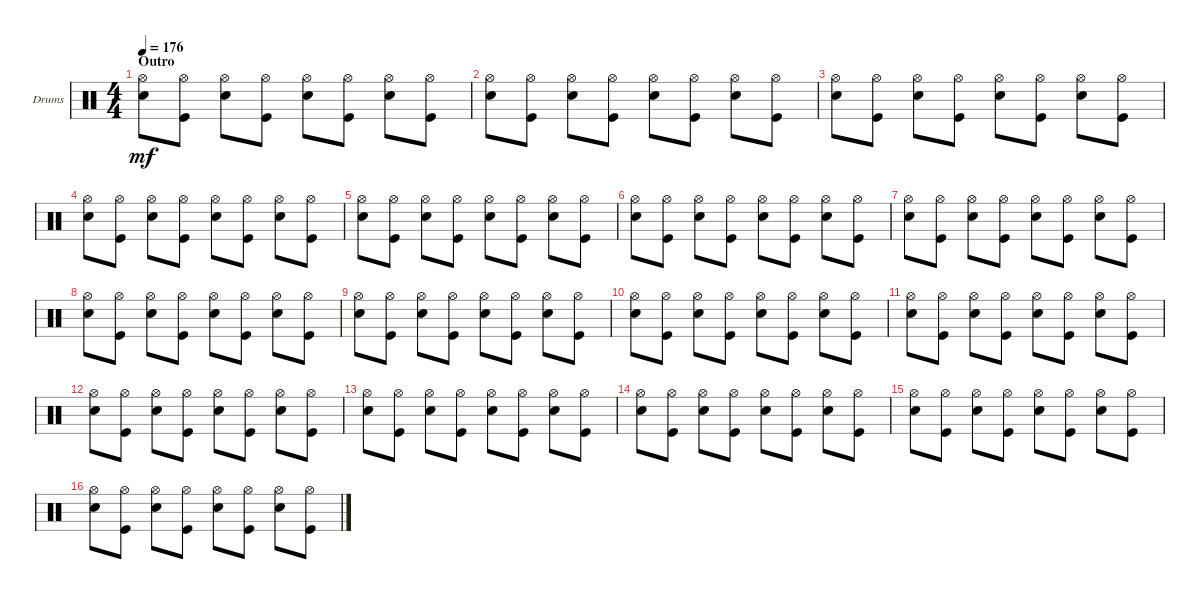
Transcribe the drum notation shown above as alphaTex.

\bracketExtendMode groupsimilarinstruments
\firstSystemTrackNameOrientation horizontal
\otherSystemsTrackNameOrientation horizontal
\track ("Drums" "Drums") {instrument percussion}
\staff {score}
\articulation defaults
\ts (4 4)
\section ("" "Outro")
\tempo 176
\clef neutral
\ks c
("Snare (hit) 2" "Hi-Hat (open)").8{dy mf} ("Kick (hit)" "Hi-Hat (open)").8 ("Snare (hit) 2" "Hi-Hat (open)").8 ("Kick (hit)" "Hi-Hat (open)").8 ("Snare (hit) 2" "Hi-Hat (open)").8 ("Kick (hit)" "Hi-Hat (open)").8 ("Snare (hit) 2" "Hi-Hat (open)").8 ("Kick (hit)" "Hi-Hat (open)").8 |
("Snare (hit) 2" "Hi-Hat (open)").8 ("Kick (hit)" "Hi-Hat (open)").8 ("Snare (hit) 2" "Hi-Hat (open)").8 ("Kick (hit)" "Hi-Hat (open)").8 ("Snare (hit) 2" "Hi-Hat (open)").8 ("Kick (hit)" "Hi-Hat (open)").8 ("Snare (hit) 2" "Hi-Hat (open)").8 ("Kick (hit)" "Hi-Hat (open)").8 |
("Snare (hit) 2" "Hi-Hat (open)").8 ("Kick (hit)" "Hi-Hat (open)").8 ("Snare (hit) 2" "Hi-Hat (open)").8 ("Kick (hit)" "Hi-Hat (open)").8 ("Snare (hit) 2" "Hi-Hat (open)").8 ("Kick (hit)" "Hi-Hat (open)").8 ("Snare (hit) 2" "Hi-Hat (open)").8 ("Kick (hit)" "Hi-Hat (open)").8 |
("Snare (hit) 2" "Hi-Hat (open)").8 ("Kick (hit)" "Hi-Hat (open)").8 ("Snare (hit) 2" "Hi-Hat (open)").8 ("Kick (hit)" "Hi-Hat (open)").8 ("Snare (hit) 2" "Hi-Hat (open)").8 ("Kick (hit)" "Hi-Hat (open)").8 ("Snare (hit) 2" "Hi-Hat (open)").8 ("Kick (hit)" "Hi-Hat (open)").8 |
("Snare (hit) 2" "Hi-Hat (open)").8 ("Kick (hit)" "Hi-Hat (open)").8 ("Snare (hit) 2" "Hi-Hat (open)").8 ("Kick (hit)" "Hi-Hat (open)").8 ("Snare (hit) 2" "Hi-Hat (open)").8 ("Kick (hit)" "Hi-Hat (open)").8 ("Snare (hit) 2" "Hi-Hat (open)").8 ("Kick (hit)" "Hi-Hat (open)").8 |
("Snare (hit) 2" "Hi-Hat (open)").8 ("Kick (hit)" "Hi-Hat (open)").8 ("Snare (hit) 2" "Hi-Hat (open)").8 ("Kick (hit)" "Hi-Hat (open)").8 ("Snare (hit) 2" "Hi-Hat (open)").8 ("Kick (hit)" "Hi-Hat (open)").8 ("Snare (hit) 2" "Hi-Hat (open)").8 ("Kick (hit)" "Hi-Hat (open)").8 |
("Snare (hit) 2" "Hi-Hat (open)").8 ("Kick (hit)" "Hi-Hat (open)").8 ("Snare (hit) 2" "Hi-Hat (open)").8 ("Kick (hit)" "Hi-Hat (open)").8 ("Snare (hit) 2" "Hi-Hat (open)").8 ("Kick (hit)" "Hi-Hat (open)").8 ("Snare (hit) 2" "Hi-Hat (open)").8 ("Kick (hit)" "Hi-Hat (open)").8 |
("Snare (hit) 2" "Hi-Hat (open)").8 ("Kick (hit)" "Hi-Hat (open)").8 ("Snare (hit) 2" "Hi-Hat (open)").8 ("Kick (hit)" "Hi-Hat (open)").8 ("Snare (hit) 2" "Hi-Hat (open)").8 ("Kick (hit)" "Hi-Hat (open)").8 ("Snare (hit) 2" "Hi-Hat (open)").8 ("Kick (hit)" "Hi-Hat (open)").8 |
("Snare (hit) 2" "Hi-Hat (open)").8 ("Kick (hit)" "Hi-Hat (open)").8 ("Snare (hit) 2" "Hi-Hat (open)").8 ("Kick (hit)" "Hi-Hat (open)").8 ("Snare (hit) 2" "Hi-Hat (open)").8 ("Kick (hit)" "Hi-Hat (open)").8 ("Snare (hit) 2" "Hi-Hat (open)").8 ("Kick (hit)" "Hi-Hat (open)").8 |
("Snare (hit) 2" "Hi-Hat (open)").8 ("Kick (hit)" "Hi-Hat (open)").8 ("Snare (hit) 2" "Hi-Hat (open)").8 ("Kick (hit)" "Hi-Hat (open)").8 ("Snare (hit) 2" "Hi-Hat (open)").8 ("Kick (hit)" "Hi-Hat (open)").8 ("Snare (hit) 2" "Hi-Hat (open)").8 ("Kick (hit)" "Hi-Hat (open)").8 |
("Snare (hit) 2" "Hi-Hat (open)").8 ("Kick (hit)" "Hi-Hat (open)").8 ("Snare (hit) 2" "Hi-Hat (open)").8 ("Kick (hit)" "Hi-Hat (open)").8 ("Snare (hit) 2" "Hi-Hat (open)").8 ("Kick (hit)" "Hi-Hat (open)").8 ("Snare (hit) 2" "Hi-Hat (open)").8 ("Kick (hit)" "Hi-Hat (open)").8 |
("Snare (hit) 2" "Hi-Hat (open)").8 ("Kick (hit)" "Hi-Hat (open)").8 ("Snare (hit) 2" "Hi-Hat (open)").8 ("Kick (hit)" "Hi-Hat (open)").8 ("Snare (hit) 2" "Hi-Hat (open)").8 ("Kick (hit)" "Hi-Hat (open)").8 ("Snare (hit) 2" "Hi-Hat (open)").8 ("Kick (hit)" "Hi-Hat (open)").8 |
("Snare (hit) 2" "Hi-Hat (open)").8 ("Kick (hit)" "Hi-Hat (open)").8 ("Snare (hit) 2" "Hi-Hat (open)").8 ("Kick (hit)" "Hi-Hat (open)").8 ("Snare (hit) 2" "Hi-Hat (open)").8 ("Kick (hit)" "Hi-Hat (open)").8 ("Snare (hit) 2" "Hi-Hat (open)").8 ("Kick (hit)" "Hi-Hat (open)").8 |
("Snare (hit) 2" "Hi-Hat (open)").8 ("Kick (hit)" "Hi-Hat (open)").8 ("Snare (hit) 2" "Hi-Hat (open)").8 ("Kick (hit)" "Hi-Hat (open)").8 ("Snare (hit) 2" "Hi-Hat (open)").8 ("Kick (hit)" "Hi-Hat (open)").8 ("Snare (hit) 2" "Hi-Hat (open)").8 ("Kick (hit)" "Hi-Hat (open)").8 |
("Snare (hit) 2" "Hi-Hat (open)").8 ("Kick (hit)" "Hi-Hat (open)").8 ("Snare (hit) 2" "Hi-Hat (open)").8 ("Kick (hit)" "Hi-Hat (open)").8 ("Snare (hit) 2" "Hi-Hat (open)").8 ("Kick (hit)" "Hi-Hat (open)").8 ("Snare (hit) 2" "Hi-Hat (open)").8 ("Kick (hit)" "Hi-Hat (open)").8 |
("Snare (hit) 2" "Hi-Hat (open)").8 ("Kick (hit)" "Hi-Hat (open)").8 ("Snare (hit) 2" "Hi-Hat (open)").8 ("Kick (hit)" "Hi-Hat (open)").8 ("Snare (hit) 2" "Hi-Hat (open)").8 ("Kick (hit)" "Hi-Hat (open)").8 ("Snare (hit) 2" "Hi-Hat (open)").8 ("Kick (hit)" "Hi-Hat (open)").8
